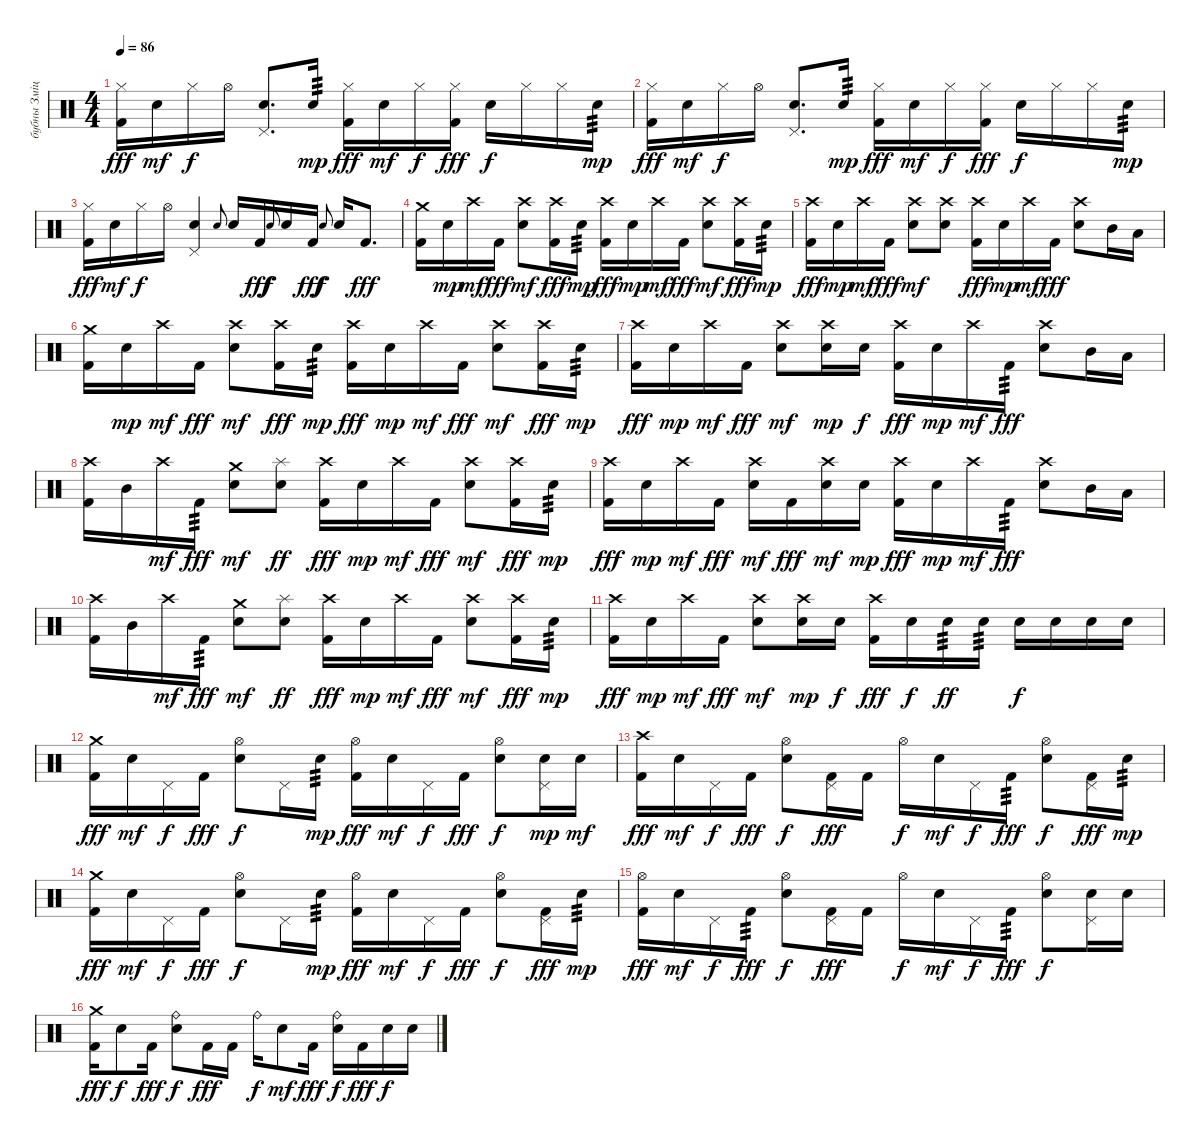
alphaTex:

\track ("бубны Змiцер" "бубны Змiц") {instrument percussion}
\staff {score}
\articulation defaults
\ts (4 4)
\tempo 86
\clef neutral
\ks c
("Hi-Hat (closed)" "Kick (hit) 2").16{dy fff} "Electric Snare (hit)".16{dy mf} "Hi-Hat (closed)".16{dy f} "Hi-Hat (open)".16 ("Pedal Hi-Hat (hit)" "Electric Snare (hit)").8{d} "Electric Snare (hit)".16{tp 3 dy mp} ("Hi-Hat (closed)" "Kick (hit) 2").16{dy fff} "Electric Snare (hit)".16{dy mf} "Hi-Hat (closed)".16{dy f} ("Hi-Hat (closed)" "Kick (hit) 2").16{dy fff} "Electric Snare (hit)".16{dy f} "Hi-Hat (closed)".16 "Hi-Hat (closed)".16 "Electric Snare (hit)".16{tp 3 dy mp} |
("Hi-Hat (closed)" "Kick (hit) 2").16{dy fff} "Electric Snare (hit)".16{dy mf} "Hi-Hat (closed)".16{dy f} "Hi-Hat (open)".16 ("Pedal Hi-Hat (hit)" "Electric Snare (hit)").8{d} "Electric Snare (hit)".16{tp 3 dy mp} ("Hi-Hat (closed)" "Kick (hit) 2").16{dy fff} "Electric Snare (hit)".16{dy mf} "Hi-Hat (closed)".16{dy f} ("Hi-Hat (closed)" "Kick (hit) 2").16{dy fff} "Electric Snare (hit)".16{dy f} "Hi-Hat (closed)".16 "Hi-Hat (closed)".16 "Electric Snare (hit)".16{tp 3 dy mp} |
("Hi-Hat (closed)" "Kick (hit) 2").16{dy fff} "Electric Snare (hit)".16{dy mf} "Hi-Hat (closed)".16{dy f} "Hi-Hat (open)".16 ("Pedal Hi-Hat (hit)" "Electric Snare (hit)").4 "Electric Snare (hit)".8{gr onbeat} "Electric Snare (hit)".16 "Kick (hit) 2".16{dy fff} "Electric Snare (hit)".8{gr onbeat dy f} "Electric Snare (hit)".16 "Kick (hit) 2".16{dy fff} "Electric Snare (hit)".8{gr onbeat dy f} "Electric Snare (hit)".16 "Kick (hit) 2".8{d dy fff} |
("Crash medium (hit)" "Kick (hit) 2").16 "Electric Snare (hit)".16{dy mp} "Crash high (hit)".16{dy mf} "Kick (hit) 2".16{dy fff} ("Crash high (hit)" "Electric Snare (hit)").8{dy mf} ("Crash high (hit)" "Kick (hit) 2").16{dy fff} "Electric Snare (hit)".16{tp 3 dy mp} ("Crash high (hit)" "Kick (hit) 2").16{dy fff} "Electric Snare (hit)".16{dy mp} "Crash high (hit)".16{dy mf} "Kick (hit) 2".16{dy fff} ("Crash high (hit)" "Electric Snare (hit)").8{dy mf} ("Crash high (hit)" "Kick (hit) 2").16{dy fff} "Electric Snare (hit)".16{tp 3 dy mp} |
("Crash high (hit)" "Kick (hit) 2").16{dy fff} "Electric Snare (hit)".16{dy mp} "Crash high (hit)".16{dy mf} "Kick (hit) 2".16{dy fff} ("Crash high (hit)" "Electric Snare (hit)").8{dy mf} ("Crash high (hit)" "Electric Snare (hit)").8 ("Crash high (hit)" "Kick (hit) 2").16{dy fff} "Electric Snare (hit)".16{dy mp} "Crash high (hit)".16{dy mf} "Kick (hit) 2".16{dy fff} ("Crash high (hit)" "Electric Snare (hit)").8 "Mid Tom (hit)".16 "Low Tom (hit)".16 |
("Crash medium (hit)" "Kick (hit) 2").16 "Electric Snare (hit)".16{dy mp} "Crash high (hit)".16{dy mf} "Kick (hit) 2".16{dy fff} ("Crash high (hit)" "Electric Snare (hit)").8{dy mf} ("Crash high (hit)" "Kick (hit) 2").16{dy fff} "Electric Snare (hit)".16{tp 3 dy mp} ("Crash high (hit)" "Kick (hit) 2").16{dy fff} "Electric Snare (hit)".16{dy mp} "Crash high (hit)".16{dy mf} "Kick (hit) 2".16{dy fff} ("Crash high (hit)" "Electric Snare (hit)").8{dy mf} ("Crash high (hit)" "Kick (hit) 2").16{dy fff} "Electric Snare (hit)".16{tp 3 dy mp} |
("Crash high (hit)" "Kick (hit) 2").16{dy fff} "Electric Snare (hit)".16{dy mp} "Crash high (hit)".16{dy mf} "Kick (hit) 2".16{dy fff} ("Crash high (hit)" "Electric Snare (hit)").8{dy mf} ("Crash high (hit)" "Electric Snare (hit)").16{dy mp} "Electric Snare (hit)".16{dy f} ("Crash high (hit)" "Kick (hit) 2").16{dy fff} "Electric Snare (hit)".16{dy mp} "Crash high (hit)".16{dy mf} "Kick (hit) 2".16{tp 3 dy fff} ("Crash high (hit)" "Electric Snare (hit)").8 "Mid Tom (hit)".16 "Low Tom (hit)".16 |
("Crash high (hit)" "Kick (hit) 2").16 "Mid Tom (hit)".16 "Crash high (hit)".16{dy mf} "Kick (hit) 2".16{tp 3 dy fff} ("Crash medium (hit)" "Electric Snare (hit)").8{dy mf} ("Splash (hit)" "Electric Snare (hit)").8{dy ff} ("Crash high (hit)" "Kick (hit) 2").16{dy fff} "Electric Snare (hit)".16{dy mp} "Crash high (hit)".16{dy mf} "Kick (hit) 2".16{dy fff} ("Crash high (hit)" "Electric Snare (hit)").8{dy mf} ("Crash high (hit)" "Kick (hit) 2").16{dy fff} "Electric Snare (hit)".16{tp 3 dy mp} |
("Crash high (hit)" "Kick (hit) 2").16{dy fff} "Electric Snare (hit)".16{dy mp} "Crash high (hit)".16{dy mf} "Kick (hit) 2".16{dy fff} ("Crash high (hit)" "Electric Snare (hit)").16{dy mf} "Kick (hit) 2".16{dy fff} ("Crash high (hit)" "Electric Snare (hit)").16{dy mf} "Electric Snare (hit)".16{dy mp} ("Crash high (hit)" "Kick (hit) 2").16{dy fff} "Electric Snare (hit)".16{dy mp} "Crash high (hit)".16{dy mf} "Kick (hit) 2".16{tp 3 dy fff} ("Crash high (hit)" "Electric Snare (hit)").8 "Mid Tom (hit)".16 "Low Tom (hit)".16 |
("Crash high (hit)" "Kick (hit) 2").16 "Mid Tom (hit)".16 "Crash high (hit)".16{dy mf} "Kick (hit) 2".16{tp 3 dy fff} ("Crash medium (hit)" "Electric Snare (hit)").8{dy mf} ("Splash (hit)" "Electric Snare (hit)").8{dy ff} ("Crash high (hit)" "Kick (hit) 2").16{dy fff} "Electric Snare (hit)".16{dy mp} "Crash high (hit)".16{dy mf} "Kick (hit) 2".16{dy fff} ("Crash high (hit)" "Electric Snare (hit)").8{dy mf} ("Crash high (hit)" "Kick (hit) 2").16{dy fff} "Electric Snare (hit)".16{tp 3 dy mp} |
("Crash high (hit)" "Kick (hit) 2").16{dy fff} "Electric Snare (hit)".16{dy mp} "Crash high (hit)".16{dy mf} "Kick (hit) 2".16{dy fff} ("Crash high (hit)" "Electric Snare (hit)").8{dy mf} ("Crash high (hit)" "Electric Snare (hit)").16{dy mp} "Electric Snare (hit)".16{dy f} ("Crash high (hit)" "Kick (hit) 2").16{dy fff} "Electric Snare (hit)".16{dy f} "Electric Snare (hit)".16{tp 3 dy ff} "Electric Snare (hit)".16{tp 3} "Electric Snare (hit)".16{dy f} "Electric Snare (hit)".16 "Electric Snare (hit)".16 "Electric Snare (hit)".16 |
("Crash medium (hit)" "Kick (hit) 2").16{dy fff} "Electric Snare (hit)".16{dy mf} "Pedal Hi-Hat (hit)".16{dy f} "Kick (hit) 2".16{dy fff} ("Hi-Hat (open)" "Electric Snare (hit)").8{dy f} "Pedal Hi-Hat (hit)".16 "Electric Snare (hit)".16{tp 3 dy mp} ("Hi-Hat (open)" "Kick (hit) 2").16{dy fff} "Electric Snare (hit)".16{dy mf} "Pedal Hi-Hat (hit)".16{dy f} "Kick (hit) 2".16{dy fff} ("Hi-Hat (open)" "Electric Snare (hit)").8{dy f} ("Pedal Hi-Hat (hit)" "Electric Snare (hit)").16{dy mp} "Electric Snare (hit)".16{dy mf} |
("Crash high (hit)" "Kick (hit) 2").16{dy fff} "Electric Snare (hit)".16{dy mf} "Pedal Hi-Hat (hit)".16{dy f} "Kick (hit) 2".16{dy fff} ("Hi-Hat (open)" "Electric Snare (hit)").8{dy f} ("Pedal Hi-Hat (hit)" "Kick (hit) 2").16{dy fff} "Kick (hit) 2".16 "Hi-Hat (open)".16{dy f} "Electric Snare (hit)".16{dy mf} "Pedal Hi-Hat (hit)".16{dy f} "Kick (hit) 2".16{tp 3 dy fff} ("Hi-Hat (open)" "Electric Snare (hit)").8{dy f} ("Pedal Hi-Hat (hit)" "Kick (hit) 2").16{dy fff} "Electric Snare (hit)".16{tp 3 dy mp} |
("Crash medium (hit)" "Kick (hit) 2").16{dy fff} "Electric Snare (hit)".16{dy mf} "Pedal Hi-Hat (hit)".16{dy f} "Kick (hit) 2".16{dy fff} ("Hi-Hat (open)" "Electric Snare (hit)").8{dy f} "Pedal Hi-Hat (hit)".16 "Electric Snare (hit)".16{tp 3 dy mp} ("Hi-Hat (open)" "Kick (hit) 2").16{dy fff} "Electric Snare (hit)".16{dy mf} "Pedal Hi-Hat (hit)".16{dy f} "Kick (hit) 2".16{dy fff} ("Hi-Hat (open)" "Electric Snare (hit)").8{dy f} ("Pedal Hi-Hat (hit)" "Kick (hit) 2").16{dy fff} "Electric Snare (hit)".16{tp 3 dy mp} |
("Hi-Hat (open)" "Kick (hit) 2").16{dy fff} "Electric Snare (hit)".16{dy mf} "Pedal Hi-Hat (hit)".16{dy f} "Kick (hit) 2".16{tp 3 dy fff} ("Hi-Hat (open)" "Electric Snare (hit)").8{dy f} ("Pedal Hi-Hat (hit)" "Kick (hit) 2").16{dy fff} "Kick (hit) 2".16 "Hi-Hat (open)".16{dy f} "Electric Snare (hit)".16{dy mf} "Pedal Hi-Hat (hit)".16{dy f} "Kick (hit) 2".16{tp 3 dy fff} ("Hi-Hat (open)" "Electric Snare (hit)").8{dy f} ("Pedal Hi-Hat (hit)" "Electric Snare (hit)").16 "Electric Snare (hit)".16 |
("Crash medium (hit)" "Kick (hit) 2").16{dy fff} "Electric Snare (hit)".8{dy f} "Kick (hit) 2".16{dy fff} ("Ride (bell)" "Electric Snare (hit)").8{dy f} "Kick (hit) 2".16{dy fff} "Kick (hit) 2".16 "Ride (bell)".16{dy f} "Electric Snare (hit)".8{dy mf} "Kick (hit) 2".16{dy fff} ("Ride (bell)" "Electric Snare (hit)").16{dy f} "Kick (hit) 2".16{dy fff} "Electric Snare (hit)".16{dy f} "Electric Snare (hit)".16
